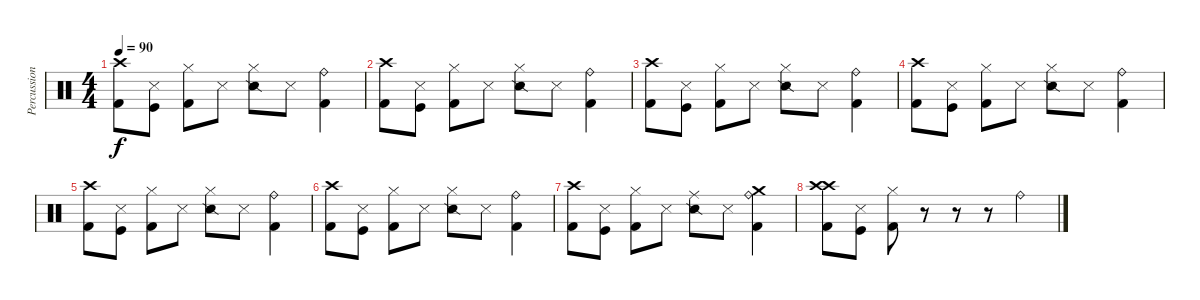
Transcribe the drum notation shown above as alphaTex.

\track ("Percussion" "Percussion") {instrument percussion}
\staff {score}
\articulation defaults
\ts (4 4)
\tempo 90
\clef neutral
\ks c
("Crash high (hit)" "Kick (hit) 2").8{dy f} ("Metronome (hit)" "Kick (hit)").8 ("Kick (hit) 2" "Hi-Hat (closed)").8 "Metronome (hit)".8 ("Snare (side stick) 2" "Hi-Hat (closed)").8 "Metronome (hit)".8 ("Kick (hit) 2" "Ride (bell)").4 |
("Crash high (hit)" "Kick (hit) 2").8 ("Metronome (hit)" "Kick (hit)").8 ("Kick (hit) 2" "Hi-Hat (closed)").8 "Metronome (hit)".8 ("Snare (side stick) 2" "Hi-Hat (closed)").8 "Metronome (hit)".8 ("Kick (hit) 2" "Ride (bell)").4 |
("Crash high (hit)" "Kick (hit) 2").8 ("Metronome (hit)" "Kick (hit)").8 ("Kick (hit) 2" "Hi-Hat (closed)").8 "Metronome (hit)".8 ("Snare (side stick) 2" "Hi-Hat (closed)").8 "Metronome (hit)".8 ("Kick (hit) 2" "Ride (bell)").4 |
("Crash high (hit)" "Kick (hit) 2").8 ("Metronome (hit)" "Kick (hit)").8 ("Kick (hit) 2" "Hi-Hat (closed)").8 "Metronome (hit)".8 ("Snare (side stick) 2" "Hi-Hat (closed)").8 "Metronome (hit)".8 ("Kick (hit) 2" "Ride (bell)").4 |
("Crash high (hit)" "Kick (hit) 2").8 ("Metronome (hit)" "Kick (hit)").8 ("Kick (hit) 2" "Hi-Hat (closed)").8 "Metronome (hit)".8 ("Snare (side stick) 2" "Hi-Hat (closed)").8 "Metronome (hit)".8 ("Kick (hit) 2" "Ride (bell)").4 |
("Crash high (hit)" "Kick (hit) 2").8 ("Metronome (hit)" "Kick (hit)").8 ("Kick (hit) 2" "Hi-Hat (closed)").8 "Metronome (hit)".8 ("Snare (side stick) 2" "Hi-Hat (closed)").8 "Metronome (hit)".8 ("Kick (hit) 2" "Ride (bell)").4 |
("Crash high (hit)" "Kick (hit) 2").8 ("Metronome (hit)" "Kick (hit)").8 ("Kick (hit) 2" "Hi-Hat (closed)").8 "Metronome (hit)".8 ("Snare (side stick) 2" "Ride (middle)").8 "Metronome (hit)".8 ("Kick (hit) 2" "Ride (bell)" "Crash medium (hit)").4 |
("Crash high (hit)" "Kick (hit) 2" "Crash high (hit)").8 ("Metronome (hit)" "Kick (hit)").8 ("Kick (hit) 2" "Hi-Hat (closed)").8 r.8 r.8 r.8 "Ride (bell)".4
